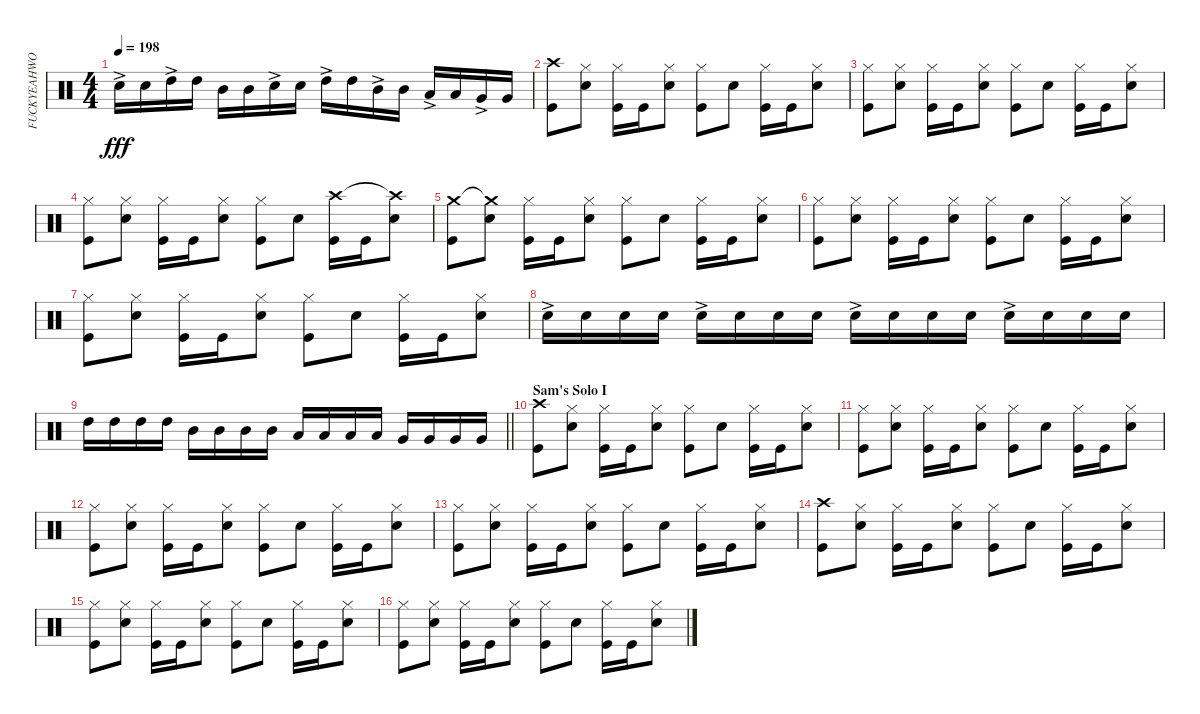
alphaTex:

\track ("FUCKYEAHWOOTDAVEMACKINTOSH!(Percussion)" "FUCKYEAHWO") {instrument percussion}
\staff {score}
\articulation defaults
\ts (4 4)
\tempo 198
\clef neutral
\ks c "Snare (hit) 2"{ac}.16{dy fff} "Snare (hit) 2".16 "High Tom (hit)"{ac}.16 "High Tom (hit)".16 "Mid Tom (hit)".16 "Mid Tom (hit)".16 "Snare (hit) 2"{ac}.16 "Snare (hit) 2".16 "High Tom (hit)"{ac}.16 "High Tom (hit)".16 "Mid Tom (hit)"{ac}.16 "Mid Tom (hit)".16 "Low Tom (hit)"{ac}.16 "Low Tom (hit)".16 "Very Low Tom (hit)"{ac}.16 "Very Low Tom (hit)".16
|
("Kick (hit)" "Crash high (hit)").8 ("Snare (hit) 2" "Hi-Hat (closed)").8 ("Kick (hit)" "Hi-Hat (closed)").16 "Kick (hit)".16 ("Snare (hit) 2" "Hi-Hat (closed)").8 ("Kick (hit)" "Hi-Hat (closed)").8 "Snare (hit) 2".8 ("Kick (hit)" "Hi-Hat (closed)").16 "Kick (hit)".16 ("Snare (hit) 2" "Hi-Hat (closed)").8 |
("Kick (hit)" "Hi-Hat (closed)").8 ("Snare (hit) 2" "Hi-Hat (closed)").8 ("Kick (hit)" "Hi-Hat (closed)").16 "Kick (hit)".16 ("Snare (hit) 2" "Hi-Hat (closed)").8 ("Kick (hit)" "Hi-Hat (closed)").8 "Snare (hit) 2".8 ("Kick (hit)" "Hi-Hat (closed)").16 "Kick (hit)".16 ("Snare (hit) 2" "Hi-Hat (closed)").8 |
("Kick (hit)" "Hi-Hat (closed)").8 ("Snare (hit) 2" "Hi-Hat (closed)").8 ("Kick (hit)" "Hi-Hat (closed)").16 "Kick (hit)".16 ("Snare (hit) 2" "Hi-Hat (closed)").8 ("Kick (hit)" "Hi-Hat (closed)").8 "Snare (hit) 2".8 ("Kick (hit)" "Crash high (hit)").16 "Kick (hit)".16 ("Snare (hit) 2" "Crash high (hit)"{t}).8 |
("Kick (hit)" "Crash medium (hit)").8 ("Snare (hit) 2" "Crash medium (hit)"{t}).8 ("Kick (hit)" "Hi-Hat (closed)").16 "Kick (hit)".16 ("Snare (hit) 2" "Hi-Hat (closed)").8 ("Kick (hit)" "Hi-Hat (closed)").8 "Snare (hit) 2".8 ("Kick (hit)" "Hi-Hat (closed)").16 "Kick (hit)".16 ("Snare (hit) 2" "Hi-Hat (closed)").8 |
("Kick (hit)" "Hi-Hat (closed)").8 ("Snare (hit) 2" "Hi-Hat (closed)").8 ("Kick (hit)" "Hi-Hat (closed)").16 "Kick (hit)".16 ("Snare (hit) 2" "Hi-Hat (closed)").8 ("Kick (hit)" "Hi-Hat (closed)").8 "Snare (hit) 2".8 ("Kick (hit)" "Hi-Hat (closed)").16 "Kick (hit)".16 ("Snare (hit) 2" "Hi-Hat (closed)").8 |
("Kick (hit)" "Hi-Hat (closed)").8 ("Snare (hit) 2" "Hi-Hat (closed)").8 ("Kick (hit)" "Hi-Hat (closed)").16 "Kick (hit)".16 ("Snare (hit) 2" "Hi-Hat (closed)").8 ("Kick (hit)" "Hi-Hat (closed)").8 "Snare (hit) 2".8 ("Kick (hit)" "Hi-Hat (closed)").16 "Kick (hit)".16 ("Snare (hit) 2" "Hi-Hat (closed)").8 |
"Snare (hit) 2"{ac}.16 "Snare (hit) 2".16 "Snare (hit) 2".16 "Snare (hit) 2".16 "Snare (hit) 2"{ac}.16 "Snare (hit) 2".16 "Snare (hit) 2".16 "Snare (hit) 2".16 "Snare (hit) 2"{ac}.16 "Snare (hit) 2".16 "Snare (hit) 2".16 "Snare (hit) 2".16 "Snare (hit) 2"{ac}.16 "Snare (hit) 2".16 "Snare (hit) 2".16 "Snare (hit) 2".16 |
\barLineRight lightlight "High Tom (hit)".16 "High Tom (hit)".16 "High Tom (hit)".16 "High Tom (hit)".16 "Mid Tom (hit)".16 "Mid Tom (hit)".16 "Mid Tom (hit)".16 "Mid Tom (hit)".16 "Low Tom (hit)".16 "Low Tom (hit)".16 "Low Tom (hit)".16 "Low Tom (hit)".16 "Very Low Tom (hit)".16 "Very Low Tom (hit)".16 "Very Low Tom (hit)".16 "Very Low Tom (hit)".16
|
\section ("" "Sam's Solo I")
("Kick (hit)" "Crash high (hit)").8 ("Snare (hit) 2" "Hi-Hat (closed)").8 ("Kick (hit)" "Hi-Hat (closed)").16 "Kick (hit)".16 ("Snare (hit) 2" "Hi-Hat (closed)").8 ("Kick (hit)" "Hi-Hat (closed)").8 "Snare (hit) 2".8 ("Kick (hit)" "Hi-Hat (closed)").16 "Kick (hit)".16 ("Snare (hit) 2" "Hi-Hat (closed)").8 |
("Kick (hit)" "Hi-Hat (closed)").8 ("Snare (hit) 2" "Hi-Hat (closed)").8 ("Kick (hit)" "Hi-Hat (closed)").16 "Kick (hit)".16 ("Snare (hit) 2" "Hi-Hat (closed)").8 ("Kick (hit)" "Hi-Hat (closed)").8 "Snare (hit) 2".8 ("Kick (hit)" "Hi-Hat (closed)").16 "Kick (hit)".16 ("Snare (hit) 2" "Hi-Hat (closed)").8 |
("Kick (hit)" "Hi-Hat (closed)").8 ("Snare (hit) 2" "Hi-Hat (closed)").8 ("Kick (hit)" "Hi-Hat (closed)").16 "Kick (hit)".16 ("Snare (hit) 2" "Hi-Hat (closed)").8 ("Kick (hit)" "Hi-Hat (closed)").8 "Snare (hit) 2".8 ("Kick (hit)" "Hi-Hat (closed)").16 "Kick (hit)".16 ("Snare (hit) 2" "Hi-Hat (closed)").8 |
("Kick (hit)" "Hi-Hat (closed)").8 ("Snare (hit) 2" "Hi-Hat (closed)").8 ("Kick (hit)" "Hi-Hat (closed)").16 "Kick (hit)".16 ("Snare (hit) 2" "Hi-Hat (closed)").8 ("Kick (hit)" "Hi-Hat (closed)").8 "Snare (hit) 2".8 ("Kick (hit)" "Hi-Hat (closed)").16 "Kick (hit)".16 ("Snare (hit) 2" "Hi-Hat (closed)").8 |
("Kick (hit)" "Crash high (hit)").8 ("Snare (hit) 2" "Hi-Hat (closed)").8 ("Kick (hit)" "Hi-Hat (closed)").16 "Kick (hit)".16 ("Snare (hit) 2" "Hi-Hat (closed)").8 ("Kick (hit)" "Hi-Hat (closed)").8 "Snare (hit) 2".8 ("Kick (hit)" "Hi-Hat (closed)").16 "Kick (hit)".16 ("Snare (hit) 2" "Hi-Hat (closed)").8 |
("Kick (hit)" "Hi-Hat (closed)").8 ("Snare (hit) 2" "Hi-Hat (closed)").8 ("Kick (hit)" "Hi-Hat (closed)").16 "Kick (hit)".16 ("Snare (hit) 2" "Hi-Hat (closed)").8 ("Kick (hit)" "Hi-Hat (closed)").8 "Snare (hit) 2".8 ("Kick (hit)" "Hi-Hat (closed)").16 "Kick (hit)".16 ("Snare (hit) 2" "Hi-Hat (closed)").8 |
("Kick (hit)" "Hi-Hat (closed)").8 ("Snare (hit) 2" "Hi-Hat (closed)").8 ("Kick (hit)" "Hi-Hat (closed)").16 "Kick (hit)".16 ("Snare (hit) 2" "Hi-Hat (closed)").8 ("Kick (hit)" "Hi-Hat (closed)").8 "Snare (hit) 2".8 ("Kick (hit)" "Hi-Hat (closed)").16 "Kick (hit)".16 ("Snare (hit) 2" "Hi-Hat (closed)").8
